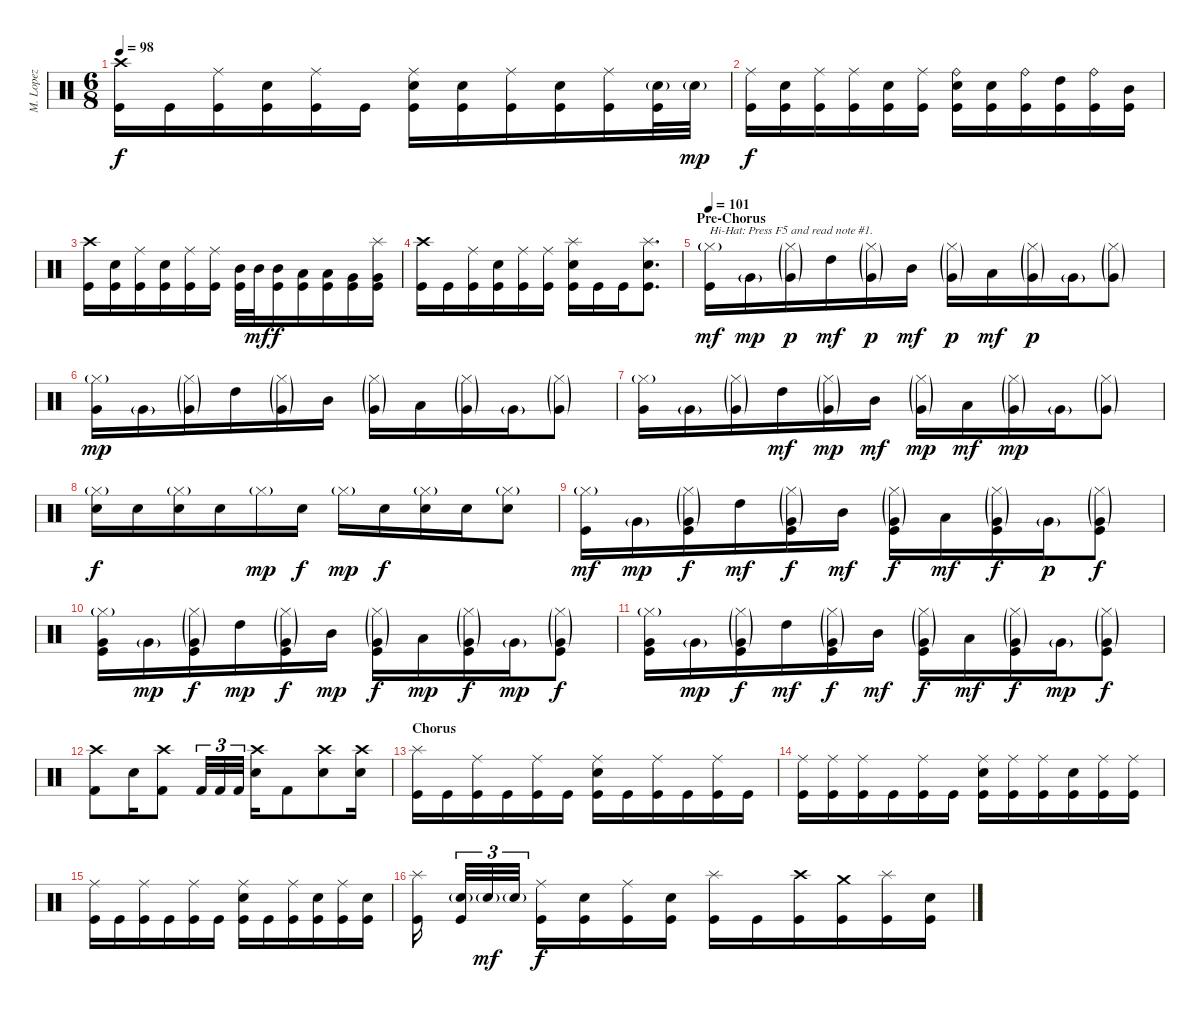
\track ("M. Lopez" "M. Lopez") {instrument percussion}
\staff {score}
\articulation defaults
\ts (6 8)
\tempo 98
\clef neutral
\ks c
("Crash high (hit)" "Kick (hit)").16{dy f} "Kick (hit)".16 ("Ride (middle)" "Kick (hit)").16 ("Electric Snare (hit)" "Kick (hit)").16 ("Ride (middle)" "Kick (hit)").16 "Kick (hit)".16 ("Ride (middle)" "Electric Snare (hit)" "Kick (hit)").16 ("Electric Snare (hit)" "Kick (hit)").16 ("Ride (middle)" "Kick (hit)").16 ("Electric Snare (hit)" "Kick (hit)").16 ("Ride (middle)" "Kick (hit)").16 ("Electric Snare (hit)"{g} "Kick (hit)").32 "Electric Snare (hit)"{g}.32{dy mp} |
("Ride (middle)" "Kick (hit)").16{dy f} ("Electric Snare (hit)" "Kick (hit)").16 ("Ride (middle)" "Kick (hit)").16 ("Ride (middle)" "Kick (hit)").16 ("Electric Snare (hit)" "Kick (hit)").16 ("Ride (middle)" "Kick (hit)").16 ("Ride (bell)" "Electric Snare (hit)" "Kick (hit)").16 ("Electric Snare (hit)" "Kick (hit)").16 ("Ride (bell)" "Kick (hit)").16 ("High Tom (hit)" "Kick (hit)").16 ("Ride (bell)" "Kick (hit)").16 ("Mid Tom (hit)" "Kick (hit)").16 |
("Crash high (hit)" "Kick (hit)").16 ("Electric Snare (hit)" "Kick (hit)").16 ("Ride (middle)" "Kick (hit)").16 ("Electric Snare (hit)" "Kick (hit)").16 ("Ride (middle)" "Kick (hit)").16 ("Ride (middle)" "Kick (hit)").16 ("Mid Tom (hit)" "Kick (hit)").32 "Mid Tom (hit)".32{dy mf} ("Mid Tom (hit)" "Kick (hit)").16{dy f} ("Low Tom (hit)" "Kick (hit)").16 ("Low Tom (hit)" "Kick (hit)").16 ("Very Low Tom (hit)" "Kick (hit)").16 ("Splash (hit)" "Very Low Tom (hit)" "Kick (hit)").16 |
("Crash high (hit)" "Kick (hit)").16 "Kick (hit)".16 ("Ride (middle)" "Kick (hit)").16 ("Electric Snare (hit)" "Kick (hit)").16 ("Ride (middle)" "Kick (hit)").16 ("Ride (middle)" "Kick (hit)").16 ("Splash (hit)" "Electric Snare (hit)" "Kick (hit)").16 "Kick (hit)".16 "Kick (hit)".16 ("Splash (hit)" "Electric Snare (hit)" "Kick (hit)").8{d} |
\section ("" "Pre-Chorus")
\tempo 101
("Hi-Hat (closed)"{g} "Kick (hit)").16{txt "Hi-Hat: Press F5 and read note #1." dy mf} "Very Low Tom (hit)"{g}.16{dy mp} ("Hi-Hat (closed)"{g} "Very Low Tom (hit)"{g}).16{dy p} "High Tom (hit)".16{dy mf} ("Hi-Hat (closed)"{g} "Very Low Tom (hit)"{g}).16{dy p} "Mid Tom (hit)".16{dy mf} ("Hi-Hat (closed)"{g} "Very Low Tom (hit)"{g}).16{dy p} "Low Tom (hit)".16{dy mf} ("Hi-Hat (closed)"{g} "Very Low Tom (hit)"{g}).16{dy p} "Very Low Tom (hit)"{g}.16 ("Hi-Hat (closed)"{g} "Very Low Tom (hit)"{g}).8 |
("Hi-Hat (closed)"{g} "Very Low Tom (hit)").16{dy mp} "Very Low Tom (hit)"{g}.16 ("Hi-Hat (closed)"{g} "Very Low Tom (hit)"{g}).16 "High Tom (hit)".16 ("Hi-Hat (closed)"{g} "Very Low Tom (hit)"{g}).16 "Mid Tom (hit)".16 ("Hi-Hat (closed)"{g} "Very Low Tom (hit)"{g}).16 "Low Tom (hit)".16 ("Hi-Hat (closed)"{g} "Very Low Tom (hit)"{g}).16 "Very Low Tom (hit)"{g}.16 ("Hi-Hat (closed)"{g} "Very Low Tom (hit)"{g}).8 |
("Hi-Hat (closed)"{g} "Very Low Tom (hit)").16 "Very Low Tom (hit)"{g}.16 ("Hi-Hat (closed)"{g} "Very Low Tom (hit)"{g}).16 "High Tom (hit)".16{dy mf} ("Hi-Hat (closed)"{g} "Very Low Tom (hit)"{g}).16{dy mp} "Mid Tom (hit)".16{dy mf} ("Hi-Hat (closed)"{g} "Very Low Tom (hit)"{g}).16{dy mp} "Low Tom (hit)".16{dy mf} ("Hi-Hat (closed)"{g} "Very Low Tom (hit)"{g}).16{dy mp} "Very Low Tom (hit)"{g}.16 ("Hi-Hat (closed)"{g} "Very Low Tom (hit)"{g}).8 |
("Hi-Hat (closed)"{g} "Electric Snare (hit)").16{dy f} "Electric Snare (hit)".16 ("Hi-Hat (closed)"{g} "Electric Snare (hit)").16 "Electric Snare (hit)".16 "Hi-Hat (closed)"{g}.16{dy mp} "Electric Snare (hit)".16{dy f} "Hi-Hat (closed)"{g}.16{dy mp} "Electric Snare (hit)".16{dy f} ("Hi-Hat (closed)"{g} "Electric Snare (hit)").16 "Electric Snare (hit)".16 ("Hi-Hat (closed)"{g} "Electric Snare (hit)").8 |
("Hi-Hat (closed)"{g} "Kick (hit)").16{dy mf} "Very Low Tom (hit)"{g}.16{dy mp} ("Hi-Hat (closed)"{g} "Very Low Tom (hit)"{g} "Kick (hit)").16{dy f} "High Tom (hit)".16{dy mf} ("Hi-Hat (closed)"{g} "Very Low Tom (hit)"{g} "Kick (hit)").16{dy f} "Mid Tom (hit)".16{dy mf} ("Hi-Hat (closed)"{g} "Very Low Tom (hit)"{g} "Kick (hit)").16{dy f} "Low Tom (hit)".16{dy mf} ("Hi-Hat (closed)"{g} "Very Low Tom (hit)"{g} "Kick (hit)").16{dy f} "Very Low Tom (hit)"{g}.16{dy p} ("Hi-Hat (closed)"{g} "Very Low Tom (hit)"{g} "Kick (hit)").8{dy f} |
("Hi-Hat (closed)"{g} "Very Low Tom (hit)" "Kick (hit)").16 "Very Low Tom (hit)"{g}.16{dy mp} ("Hi-Hat (closed)"{g} "Very Low Tom (hit)"{g} "Kick (hit)").16{dy f} "High Tom (hit)".16{dy mp} ("Hi-Hat (closed)"{g} "Very Low Tom (hit)"{g} "Kick (hit)").16{dy f} "Mid Tom (hit)".16{dy mp} ("Hi-Hat (closed)"{g} "Very Low Tom (hit)"{g} "Kick (hit)").16{dy f} "Low Tom (hit)".16{dy mp} ("Hi-Hat (closed)"{g} "Very Low Tom (hit)"{g} "Kick (hit)").16{dy f} "Very Low Tom (hit)"{g}.16{dy mp} ("Hi-Hat (closed)"{g} "Very Low Tom (hit)"{g} "Kick (hit)").8{dy f} |
("Hi-Hat (closed)"{g} "Very Low Tom (hit)" "Kick (hit)").16 "Very Low Tom (hit)"{g}.16{dy mp} ("Hi-Hat (closed)"{g} "Very Low Tom (hit)"{g} "Kick (hit)").16{dy f} "High Tom (hit)".16{dy mf} ("Hi-Hat (closed)"{g} "Very Low Tom (hit)"{g} "Kick (hit)").16{dy f} "Mid Tom (hit)".16{dy mf} ("Hi-Hat (closed)"{g} "Very Low Tom (hit)"{g} "Kick (hit)").16{dy f} "Low Tom (hit)".16{dy mf} ("Hi-Hat (closed)"{g} "Very Low Tom (hit)"{g} "Kick (hit)").16{dy f} "Very Low Tom (hit)"{g}.16{dy mp} ("Hi-Hat (closed)"{g} "Very Low Tom (hit)"{g} "Kick (hit)").8{dy f} |
("Crash high (hit)" "Kick (hit) 2").8 "Electric Snare (hit)".16 ("Crash high (hit)" "Kick (hit) 2").8 "Kick (hit) 2".32{tu (3 2)} "Kick (hit) 2".32{tu (3 2)} "Kick (hit) 2".32{tu (3 2)} ("Crash high (hit)" "Electric Snare (hit)").16 "Kick (hit) 2".8 ("Crash high (hit)" "Electric Snare (hit)").8 ("Crash high (hit)" "Electric Snare (hit)").16 |
\section ("" "Chorus")
("Splash (hit)" "Kick (hit)").16 "Kick (hit)".16 ("Ride (middle)" "Kick (hit)").16 "Kick (hit)".16 ("Ride (middle)" "Kick (hit)").16 "Kick (hit)".16 ("Ride (middle)" "Electric Snare (hit)" "Kick (hit)").16 "Kick (hit)".16 ("Ride (middle)" "Kick (hit)").16 "Kick (hit)".16 ("Ride (middle)" "Kick (hit)").16 "Kick (hit)".16 |
("Ride (middle)" "Kick (hit)").16 ("Ride (middle)" "Kick (hit)").16 ("Ride (middle)" "Kick (hit)").16 "Kick (hit)".16 ("Ride (middle)" "Kick (hit)").16 "Kick (hit)".16 ("Ride (middle)" "Electric Snare (hit)" "Kick (hit)").16 ("Ride (middle)" "Kick (hit)").16 ("Ride (middle)" "Kick (hit)").16 ("Electric Snare (hit)" "Kick (hit)").16 ("Ride (middle)" "Kick (hit)").16 ("Ride (middle)" "Kick (hit)").16 |
("Ride (middle)" "Kick (hit)").16 "Kick (hit)".16 ("Ride (middle)" "Kick (hit)").16 "Kick (hit)".16 ("Ride (middle)" "Kick (hit)").16 "Kick (hit)".16 ("Ride (middle)" "Electric Snare (hit)" "Kick (hit)").16 "Kick (hit)".16 ("Ride (middle)" "Kick (hit)").16 ("Electric Snare (hit)" "Kick (hit)").16 ("Ride (middle)" "Kick (hit)").16 ("Electric Snare (hit)" "Kick (hit)").16 |
("Splash (hit)" "Kick (hit)").16 ("Electric Snare (hit)"{g} "Kick (hit)").32{tu (3 2)} "Electric Snare (hit)"{g}.32{tu (3 2) dy mf} "Electric Snare (hit)"{g}.32{tu (3 2)} ("Ride (middle)" "Kick (hit)").16{dy f} ("Electric Snare (hit)" "Kick (hit)").16 ("Ride (middle)" "Kick (hit)").16 ("Electric Snare (hit)" "Kick (hit)").16 ("Splash (hit)" "Kick (hit)").16 "Kick (hit)".16 ("Crash high (hit)" "Kick (hit)").16 ("Crash medium (hit)" "Kick (hit)").16 ("Splash (hit)" "Kick (hit)").16 ("Electric Snare (hit)" "Kick (hit)").16
